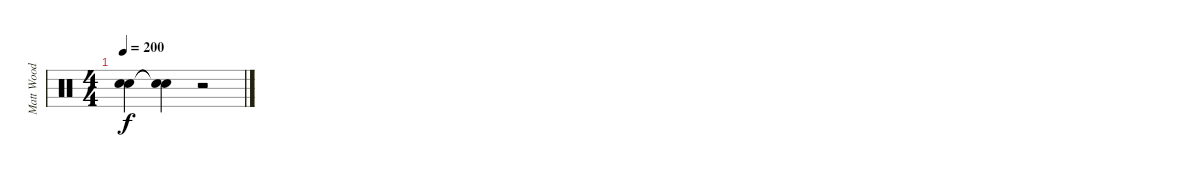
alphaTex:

\track ("Matt Wood" "Matt Wood") {instrument percussion}
\staff {score}
\articulation defaults
\ts (4 4)
\tempo 200
\clef neutral
\ks c
("Snare (hit)"{t} "Snare (hit)"{t}).4{dy f} ("Snare (hit)"{t} "Snare (hit)"{t}).4 r.2
